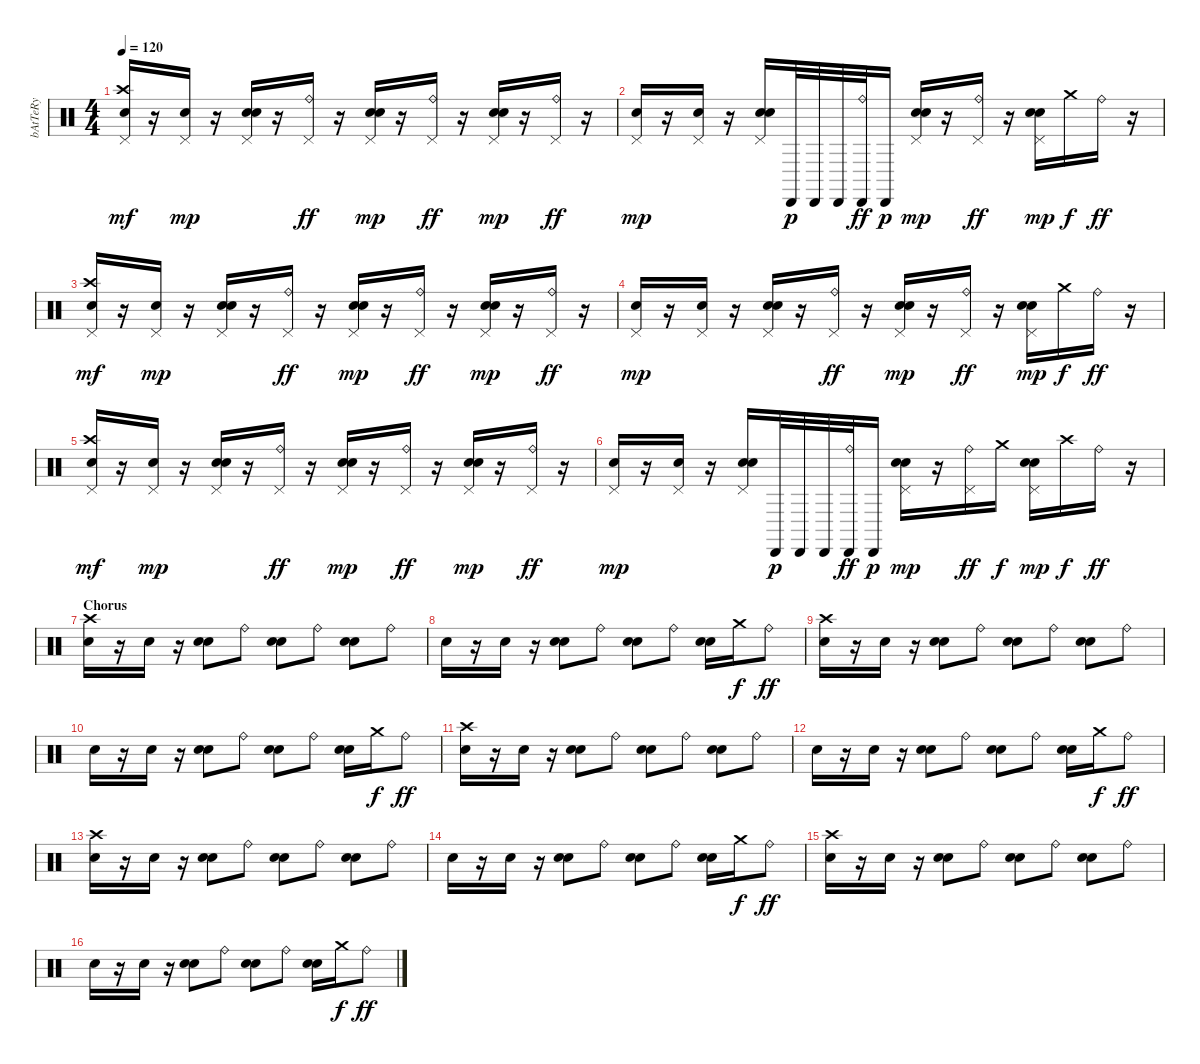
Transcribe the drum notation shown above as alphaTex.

\track ("bAtTeRy" "bAtTeRy") {instrument percussion}
\staff {score}
\articulation defaults
\ts (4 4)
\tempo 120
\clef neutral
\ks c
("Pedal Hi-Hat (hit)" "Crash high (hit)" "Electric Snare (hit)").16{dy mf} r.16 ("Pedal Hi-Hat (hit)" "Electric Snare (hit)").16{dy mp} r.16 ("Pedal Hi-Hat (hit)" "Electric Snare (hit)" "Electric Snare (hit)").16{bd 480} r.16 ("Pedal Hi-Hat (hit)" "Ride (bell)").16{dy ff} r.16 ("Pedal Hi-Hat (hit)" "Electric Snare (hit)" "Electric Snare (hit)").16{bd 480 dy mp} r.16 ("Pedal Hi-Hat (hit)" "Ride (bell)").16{dy ff} r.16 ("Pedal Hi-Hat (hit)" "Electric Snare (hit)" "Electric Snare (hit)").16{bd 480 dy mp} r.16 ("Pedal Hi-Hat (hit)" "Ride (bell)").16{dy ff} r.16 |
("Pedal Hi-Hat (hit)" "Electric Snare (hit)").16{dy mp} r.16 ("Pedal Hi-Hat (hit)" "Electric Snare (hit)").16 r.16 ("Pedal Hi-Hat (hit)" "Electric Snare (hit)" "Electric Snare (hit)").16{bd 480} "Cabasa (hit)".32{dy p} "Cabasa (hit)".32 "Cabasa (hit)".32 ("Cabasa (hit)" "Ride (bell)").32{dy ff} "Cabasa (hit)".16{dy p} ("Pedal Hi-Hat (hit)" "Electric Snare (hit)" "Electric Snare (hit)").16{bd 480 dy mp} r.16 ("Pedal Hi-Hat (hit)" "Ride (bell)").16{dy ff} r.16 ("Pedal Hi-Hat (hit)" "Electric Snare (hit)" "Electric Snare (hit)").16{bd 480 dy mp} "Crash medium (hit)".16{dy f} "Ride (bell)".16{dy ff} r.16 |
("Pedal Hi-Hat (hit)" "Crash high (hit)" "Electric Snare (hit)").16{dy mf} r.16 ("Pedal Hi-Hat (hit)" "Electric Snare (hit)").16{dy mp} r.16 ("Pedal Hi-Hat (hit)" "Electric Snare (hit)" "Electric Snare (hit)").16{bd 480} r.16 ("Pedal Hi-Hat (hit)" "Ride (bell)").16{dy ff} r.16 ("Pedal Hi-Hat (hit)" "Electric Snare (hit)" "Electric Snare (hit)").16{bd 480 dy mp} r.16 ("Pedal Hi-Hat (hit)" "Ride (bell)").16{dy ff} r.16 ("Pedal Hi-Hat (hit)" "Electric Snare (hit)" "Electric Snare (hit)").16{bd 480 dy mp} r.16 ("Pedal Hi-Hat (hit)" "Ride (bell)").16{dy ff} r.16 |
("Pedal Hi-Hat (hit)" "Electric Snare (hit)").16{dy mp} r.16 ("Pedal Hi-Hat (hit)" "Electric Snare (hit)").16 r.16 ("Pedal Hi-Hat (hit)" "Electric Snare (hit)" "Electric Snare (hit)").16{bd 480} r.16 ("Pedal Hi-Hat (hit)" "Ride (bell)").16{dy ff} r.16 ("Pedal Hi-Hat (hit)" "Electric Snare (hit)" "Electric Snare (hit)").16{bd 480 dy mp} r.16 ("Pedal Hi-Hat (hit)" "Ride (bell)").16{dy ff} r.16 ("Pedal Hi-Hat (hit)" "Electric Snare (hit)" "Electric Snare (hit)").16{bd 480 dy mp} "Crash medium (hit)".16{dy f} "Ride (bell)".16{dy ff} r.16 |
("Pedal Hi-Hat (hit)" "Crash high (hit)" "Electric Snare (hit)").16{dy mf} r.16 ("Pedal Hi-Hat (hit)" "Electric Snare (hit)").16{dy mp} r.16 ("Pedal Hi-Hat (hit)" "Electric Snare (hit)" "Electric Snare (hit)").16{bd 480} r.16 ("Pedal Hi-Hat (hit)" "Ride (bell)").16{dy ff} r.16 ("Pedal Hi-Hat (hit)" "Electric Snare (hit)" "Electric Snare (hit)").16{bd 480 dy mp} r.16 ("Pedal Hi-Hat (hit)" "Ride (bell)").16{dy ff} r.16 ("Pedal Hi-Hat (hit)" "Electric Snare (hit)" "Electric Snare (hit)").16{bd 480 dy mp} r.16 ("Pedal Hi-Hat (hit)" "Ride (bell)").16{dy ff} r.16 |
("Pedal Hi-Hat (hit)" "Electric Snare (hit)").16{dy mp} r.16 ("Pedal Hi-Hat (hit)" "Electric Snare (hit)").16 r.16 ("Pedal Hi-Hat (hit)" "Electric Snare (hit)" "Electric Snare (hit)").16{bd 480} "Cabasa (hit)".32{dy p} "Cabasa (hit)".32 "Cabasa (hit)".32 ("Cabasa (hit)" "Ride (bell)").32{dy ff} "Cabasa (hit)".16{dy p} ("Pedal Hi-Hat (hit)" "Electric Snare (hit)" "Electric Snare (hit)").16{bd 480 dy mp} r.16 ("Pedal Hi-Hat (hit)" "Ride (bell)").16{dy ff} "Crash medium (hit)".16{dy f} ("Pedal Hi-Hat (hit)" "Electric Snare (hit)" "Electric Snare (hit)").16{bd 480 dy mp} "Crash high (hit)".16{dy f} "Ride (bell)".16{dy ff} r.16 |
\section ("" "Chorus")
("Crash high (hit)" "Electric Snare (hit)").16 r.16 "Electric Snare (hit)".16 r.16 ("Electric Snare (hit)" "Electric Snare (hit)").8{bd 480} "Ride (bell)".8 ("Electric Snare (hit)" "Electric Snare (hit)").8{bd 480} "Ride (bell)".8 ("Electric Snare (hit)" "Electric Snare (hit)").8{bd 480} "Ride (bell)".8 |
"Electric Snare (hit)".16 r.16 "Electric Snare (hit)".16 r.16 ("Electric Snare (hit)" "Electric Snare (hit)").8{bd 480} "Ride (bell)".8 ("Electric Snare (hit)" "Electric Snare (hit)").8{bd 480} "Ride (bell)".8 ("Electric Snare (hit)" "Electric Snare (hit)").16{bd 480} "Crash medium (hit)".16{dy f} "Ride (bell)".8{dy ff} |
("Crash high (hit)" "Electric Snare (hit)").16 r.16 "Electric Snare (hit)".16 r.16 ("Electric Snare (hit)" "Electric Snare (hit)").8{bd 480} "Ride (bell)".8 ("Electric Snare (hit)" "Electric Snare (hit)").8{bd 480} "Ride (bell)".8 ("Electric Snare (hit)" "Electric Snare (hit)").8{bd 480} "Ride (bell)".8 |
"Electric Snare (hit)".16 r.16 "Electric Snare (hit)".16 r.16 ("Electric Snare (hit)" "Electric Snare (hit)").8{bd 480} "Ride (bell)".8 ("Electric Snare (hit)" "Electric Snare (hit)").8{bd 480} "Ride (bell)".8 ("Electric Snare (hit)" "Electric Snare (hit)").16{bd 480} "Crash medium (hit)".16{dy f} "Ride (bell)".8{dy ff} |
("Crash high (hit)" "Electric Snare (hit)").16 r.16 "Electric Snare (hit)".16 r.16 ("Electric Snare (hit)" "Electric Snare (hit)").8{bd 480} "Ride (bell)".8 ("Electric Snare (hit)" "Electric Snare (hit)").8{bd 480} "Ride (bell)".8 ("Electric Snare (hit)" "Electric Snare (hit)").8{bd 480} "Ride (bell)".8 |
"Electric Snare (hit)".16 r.16 "Electric Snare (hit)".16 r.16 ("Electric Snare (hit)" "Electric Snare (hit)").8{bd 480} "Ride (bell)".8 ("Electric Snare (hit)" "Electric Snare (hit)").8{bd 480} "Ride (bell)".8 ("Electric Snare (hit)" "Electric Snare (hit)").16{bd 480} "Crash medium (hit)".16{dy f} "Ride (bell)".8{dy ff} |
("Crash high (hit)" "Electric Snare (hit)").16 r.16 "Electric Snare (hit)".16 r.16 ("Electric Snare (hit)" "Electric Snare (hit)").8{bd 480} "Ride (bell)".8 ("Electric Snare (hit)" "Electric Snare (hit)").8{bd 480} "Ride (bell)".8 ("Electric Snare (hit)" "Electric Snare (hit)").8{bd 480} "Ride (bell)".8 |
"Electric Snare (hit)".16 r.16 "Electric Snare (hit)".16 r.16 ("Electric Snare (hit)" "Electric Snare (hit)").8{bd 480} "Ride (bell)".8 ("Electric Snare (hit)" "Electric Snare (hit)").8{bd 480} "Ride (bell)".8 ("Electric Snare (hit)" "Electric Snare (hit)").16{bd 480} "Crash medium (hit)".16{dy f} "Ride (bell)".8{dy ff} |
("Crash high (hit)" "Electric Snare (hit)").16 r.16 "Electric Snare (hit)".16 r.16 ("Electric Snare (hit)" "Electric Snare (hit)").8{bd 480} "Ride (bell)".8 ("Electric Snare (hit)" "Electric Snare (hit)").8{bd 480} "Ride (bell)".8 ("Electric Snare (hit)" "Electric Snare (hit)").8{bd 480} "Ride (bell)".8 |
"Electric Snare (hit)".16 r.16 "Electric Snare (hit)".16 r.16 ("Electric Snare (hit)" "Electric Snare (hit)").8{bd 480} "Ride (bell)".8 ("Electric Snare (hit)" "Electric Snare (hit)").8{bd 480} "Ride (bell)".8 ("Electric Snare (hit)" "Electric Snare (hit)").16{bd 480} "Crash medium (hit)".16{dy f} "Ride (bell)".8{dy ff}
